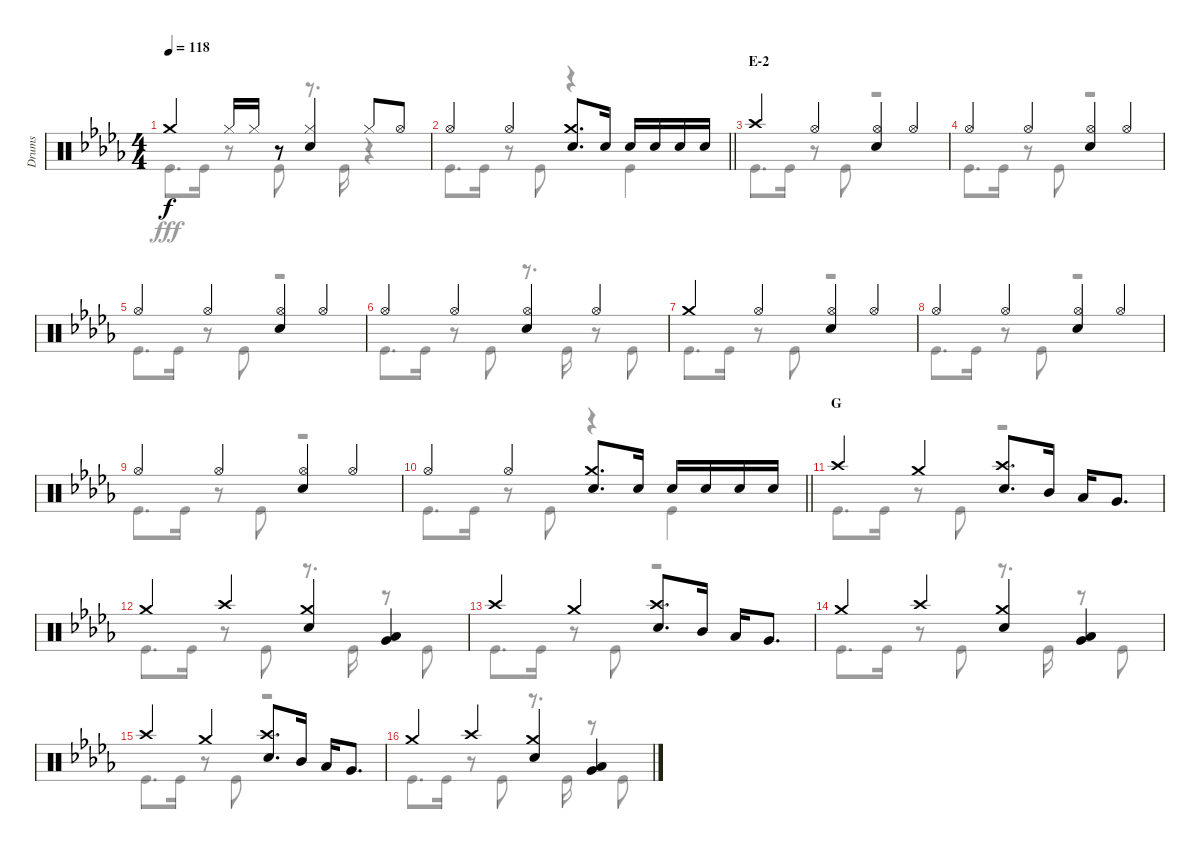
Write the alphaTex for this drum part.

\track ("Drums" "Drums") {instrument percussion}
\staff {score}
\articulation defaults
\voice
\ts (4 4)
\tempo 118
\clef neutral
\ks db "Crash medium (hit)".4{dy f} "Hi-Hat (closed)".16 "Hi-Hat (closed)".16
r.8 ("Hi-Hat (closed)" "Snare (hit) 2").4 "Hi-Hat (closed)".8 "Hi-Hat (open)".8 |
\barLineRight lightlight "Hi-Hat (open)".4 "Hi-Hat (open)".4
("Crash medium (hit)" "Snare (hit) 2").8{d} "Snare (hit) 2".16 "Snare (hit) 2".16 "Snare (hit) 2".16 "Snare (hit) 2".16 "Snare (hit) 2".16 |
\section ("" "E-2")
"Crash high (hit)".4 "Hi-Hat (open)".4 ("Hi-Hat (open)" "Snare (hit) 2").4 "Hi-Hat (open)".4 |
"Hi-Hat (open)".4 "Hi-Hat (open)".4 ("Hi-Hat (open)" "Snare (hit) 2").4 "Hi-Hat (open)".4 |
"Hi-Hat (open)".4 "Hi-Hat (open)".4 ("Hi-Hat (open)" "Snare (hit) 2").4 "Hi-Hat (open)".4 |
"Hi-Hat (open)".4 "Hi-Hat (open)".4 ("Hi-Hat (open)" "Snare (hit) 2").4 "Hi-Hat (open)".4 |
"Crash medium (hit)".4 "Hi-Hat (open)".4 ("Hi-Hat (open)" "Snare (hit) 2").4 "Hi-Hat (open)".4 |
"Hi-Hat (open)".4 "Hi-Hat (open)".4 ("Hi-Hat (open)" "Snare (hit) 2").4 "Hi-Hat (open)".4 |
"Hi-Hat (open)".4 "Hi-Hat (open)".4 ("Hi-Hat (open)" "Snare (hit) 2").4 "Hi-Hat (open)".4 |
\barLineRight lightlight "Hi-Hat (open)".4 "Hi-Hat (open)".4
("Crash medium (hit)" "Snare (hit) 2").8{d} "Snare (hit) 2".16 "Snare (hit) 2".16 "Snare (hit) 2".16 "Snare (hit) 2".16 "Snare (hit) 2".16 |
\section ("" "G")
"Crash high (hit)".4 "Crash medium (hit)".4 ("Crash high (hit)" "Snare (hit) 2").8{d} "Mid Tom (hit)".16 "Low Tom (hit)".16 "Very Low Tom (hit)".8{d} |
"Crash medium (hit)".4 "Crash high (hit)".4 ("Crash medium (hit)" "Snare (hit) 2").4 ("Low Tom (hit)" "Very Low Tom (hit)").4 |
"Crash high (hit)".4 "Crash medium (hit)".4 ("Crash high (hit)" "Snare (hit) 2").8{d} "Mid Tom (hit)".16 "Low Tom (hit)".16 "Very Low Tom (hit)".8{d} |
"Crash medium (hit)".4 "Crash high (hit)".4 ("Crash medium (hit)" "Snare (hit) 2").4 ("Low Tom (hit)" "Very Low Tom (hit)").4 |
"Crash high (hit)".4 "Crash medium (hit)".4 ("Crash high (hit)" "Snare (hit) 2").8{d} "Mid Tom (hit)".16 "Low Tom (hit)".16 "Very Low Tom (hit)".8{d} |
"Crash medium (hit)".4 "Crash high (hit)".4 ("Crash medium (hit)" "Snare (hit) 2").4 ("Low Tom (hit)" "Very Low Tom (hit)").4
\voice
\clef neutral
\ottava regular
\simile none
\ks db "Kick (hit)".8{d dy fff} "Kick (hit)".16
r.8 "Kick (hit)".8 r.8{d} "Kick (hit)".16 r.4 |
\barLineRight lightlight "Kick (hit)".8{d} "Kick (hit)".16
r.8 "Kick (hit)".8 r.4 "Kick (hit)".4 |
"Kick (hit)".8{d} "Kick (hit)".16 r.8 "Kick (hit)".8 r.2 |
"Kick (hit)".8{d} "Kick (hit)".16 r.8 "Kick (hit)".8 r.2 |
"Kick (hit)".8{d} "Kick (hit)".16 r.8 "Kick (hit)".8 r.2 |
"Kick (hit)".8{d} "Kick (hit)".16 r.8 "Kick (hit)".8 r.8{d} "Kick (hit)".16 r.8 "Kick (hit)".8 |
"Kick (hit)".8{d} "Kick (hit)".16 r.8 "Kick (hit)".8 r.2 |
"Kick (hit)".8{d} "Kick (hit)".16 r.8 "Kick (hit)".8 r.2 |
"Kick (hit)".8{d} "Kick (hit)".16 r.8 "Kick (hit)".8 r.2 |
\barLineRight lightlight "Kick (hit)".8{d} "Kick (hit)".16
r.8 "Kick (hit)".8 r.4 "Kick (hit)".4 |
"Kick (hit)".8{d} "Kick (hit)".16 r.8 "Kick (hit)".8 r.2 |
"Kick (hit)".8{d} "Kick (hit)".16 r.8 "Kick (hit)".8 r.8{d} "Kick (hit)".16 r.8 "Kick (hit)".8 |
"Kick (hit)".8{d} "Kick (hit)".16 r.8 "Kick (hit)".8 r.2 |
"Kick (hit)".8{d} "Kick (hit)".16 r.8 "Kick (hit)".8 r.8{d} "Kick (hit)".16 r.8 "Kick (hit)".8 |
"Kick (hit)".8{d} "Kick (hit)".16 r.8 "Kick (hit)".8 r.2 |
"Kick (hit)".8{d} "Kick (hit)".16 r.8 "Kick (hit)".8 r.8{d} "Kick (hit)".16 r.8 "Kick (hit)".8
